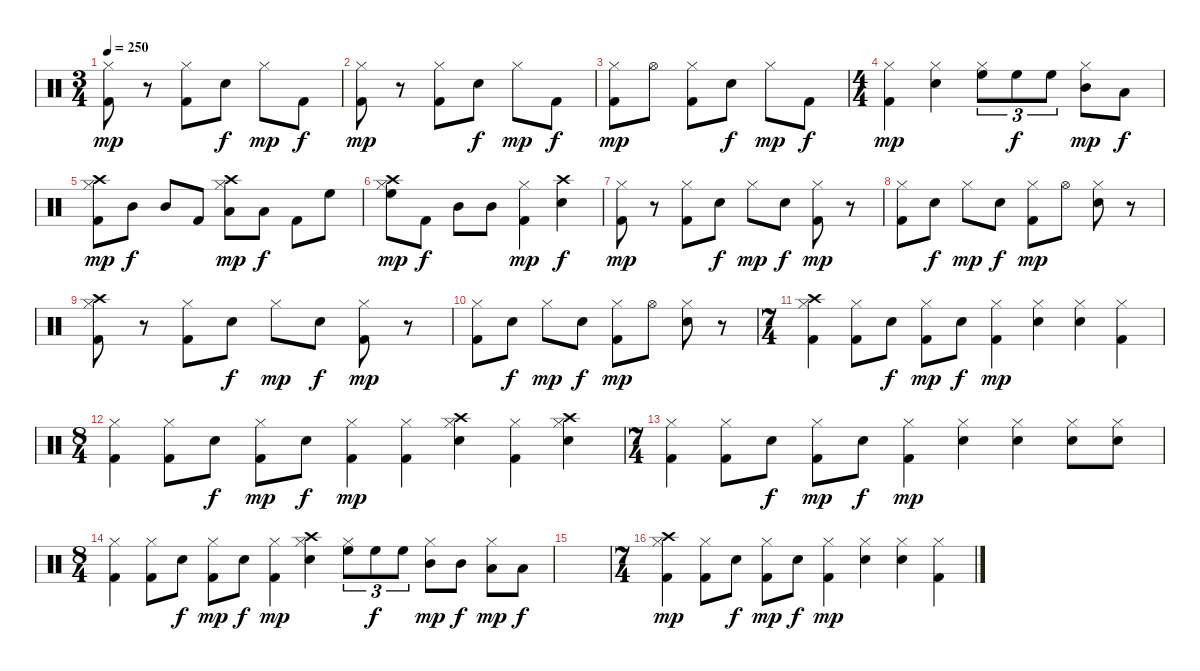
\track "" {instrument percussion}
\staff {score}
\articulation defaults
\ts (3 4)
\tempo 250
\clef neutral
\ks c
("Hi-Hat (closed)" "Kick (hit) 2").8{dy mp} r.8 ("Hi-Hat (closed)" "Kick (hit) 2").8 "Electric Snare (hit)".8{dy f} "Hi-Hat (closed)".8{dy mp} "Kick (hit) 2".8{dy f} |
("Hi-Hat (closed)" "Kick (hit) 2").8{dy mp} r.8 ("Hi-Hat (closed)" "Kick (hit) 2").8 "Electric Snare (hit)".8{dy f} "Hi-Hat (closed)".8{dy mp} "Kick (hit) 2".8{dy f} |
("Hi-Hat (closed)" "Kick (hit) 2").8{dy mp} "Hi-Hat (open)".8 ("Hi-Hat (closed)" "Kick (hit) 2").8 "Electric Snare (hit)".8{dy f} "Hi-Hat (closed)".8{dy mp} "Kick (hit) 2".8{dy f} |
\ts (4 4)
("Hi-Hat (closed)" "Kick (hit) 2").4{dy mp} ("Hi-Hat (closed)" "Electric Snare (hit)").4 ("Hi-Hat (closed)" "High Floor Tom (hit)").8{tu (3 2) balance 16} "High Floor Tom (hit)".8{tu (3 2) dy f} "High Floor Tom (hit)".8{tu (3 2)} ("Hi-Hat (closed)" "Mid Tom (hit)").8{dy mp balance 8} "Low Tom (hit)".8{dy f balance 0} |
("Hi-Hat (closed)" "Kick (hit) 2" "Crash high (hit)").8{dy mp} "Mid Tom (hit)".8{dy f} "Mid Tom (hit)".8 "Kick (hit) 2".8 ("Hi-Hat (closed)" "Low Tom (hit)" "Crash high (hit)").8{dy mp balance 2} "Low Tom (hit)".8{dy f} "Kick (hit) 2".8{balance 8} "High Floor Tom (hit)".8{balance 14} |
("Hi-Hat (closed)" "High Floor Tom (hit)" "Crash high (hit)").8{dy mp} "Kick (hit) 2".8{dy f balance 8} "Mid Tom (hit)".8 "Mid Tom (hit)".8 ("Hi-Hat (closed)" "Kick (hit) 2").4{dy mp} ("Electric Snare (hit)" "Crash high (hit)").4{dy f} |
("Kick (hit) 2" "Hi-Hat (closed)").8{dy mp} r.8 ("Kick (hit) 2" "Hi-Hat (closed)").8 "Electric Snare (hit)".8{dy f} "Hi-Hat (closed)".8{dy mp} "Electric Snare (hit)".8{dy f} ("Kick (hit) 2" "Hi-Hat (closed)").8{dy mp} r.8 |
("Kick (hit) 2" "Hi-Hat (closed)").8 "Electric Snare (hit)".8{dy f} "Hi-Hat (closed)".8{dy mp} "Electric Snare (hit)".8{dy f} ("Kick (hit) 2" "Hi-Hat (closed)").8{dy mp} "Hi-Hat (open)".8 ("Electric Snare (hit)" "Hi-Hat (closed)").8 r.8 |
("Kick (hit) 2" "Hi-Hat (closed)" "Crash high (hit)").8 r.8 ("Kick (hit) 2" "Hi-Hat (closed)").8 "Electric Snare (hit)".8{dy f} "Hi-Hat (closed)".8{dy mp} "Electric Snare (hit)".8{dy f} ("Kick (hit) 2" "Hi-Hat (closed)").8{dy mp} r.8 |
("Kick (hit) 2" "Hi-Hat (closed)").8 "Electric Snare (hit)".8{dy f} "Hi-Hat (closed)".8{dy mp} "Electric Snare (hit)".8{dy f} ("Kick (hit) 2" "Hi-Hat (closed)").8{dy mp} "Hi-Hat (open)".8 ("Electric Snare (hit)" "Hi-Hat (closed)").8 r.8 |
\ts (7 4)
("Kick (hit) 2" "Hi-Hat (closed)" "Crash high (hit)").4 ("Kick (hit) 2" "Hi-Hat (closed)").8 "Electric Snare (hit)".8{dy f} ("Kick (hit) 2" "Hi-Hat (closed)").8{dy mp} "Electric Snare (hit)".8{dy f} ("Kick (hit) 2" "Hi-Hat (closed)").4{dy mp} ("Electric Snare (hit)" "Hi-Hat (closed)").4 ("Electric Snare (hit)" "Hi-Hat (closed)").4 ("Kick (hit) 2" "Hi-Hat (closed)").4 |
\ts (8 4)
("Kick (hit) 2" "Hi-Hat (closed)").4 ("Kick (hit) 2" "Hi-Hat (closed)").8 "Electric Snare (hit)".8{dy f} ("Kick (hit) 2" "Hi-Hat (closed)").8{dy mp} "Electric Snare (hit)".8{dy f} ("Kick (hit) 2" "Hi-Hat (closed)").4{dy mp} ("Kick (hit) 2" "Hi-Hat (closed)").4 ("Electric Snare (hit)" "Hi-Hat (closed)" "Crash high (hit)").4 ("Kick (hit) 2" "Hi-Hat (closed)").4 ("Electric Snare (hit)" "Hi-Hat (closed)" "Crash high (hit)").4 |
\ts (7 4)
("Kick (hit) 2" "Hi-Hat (closed)").4 ("Kick (hit) 2" "Hi-Hat (closed)").8 "Electric Snare (hit)".8{dy f} ("Kick (hit) 2" "Hi-Hat (closed)").8{dy mp} "Electric Snare (hit)".8{dy f} ("Kick (hit) 2" "Hi-Hat (closed)").4{dy mp} ("Electric Snare (hit)" "Hi-Hat (closed)").4 ("Electric Snare (hit)" "Hi-Hat (closed)").4 ("Electric Snare (hit)" "Hi-Hat (closed)").8 ("Electric Snare (hit)" "Hi-Hat (closed)").8 |
\ts (8 4)
("Kick (hit) 2" "Hi-Hat (closed)").4 ("Kick (hit) 2" "Hi-Hat (closed)").8 "Electric Snare (hit)".8{dy f} ("Kick (hit) 2" "Hi-Hat (closed)").8{dy mp} "Electric Snare (hit)".8{dy f} ("Kick (hit) 2" "Hi-Hat (closed)").4{dy mp} ("Electric Snare (hit)" "Hi-Hat (closed)" "Crash high (hit)").4 ("High Floor Tom (hit)" "Hi-Hat (closed)").8{tu (3 2) balance 16} "High Floor Tom (hit)".8{tu (3 2) dy f} "High Floor Tom (hit)".8{tu (3 2)} ("Mid Tom (hit)" "Hi-Hat (closed)").8{dy mp balance 8} "Mid Tom (hit)".8{dy f} ("Low Tom (hit)" "Hi-Hat (closed)").8{dy mp balance 0} "Low Tom (hit)".8{dy f} |
|
\ts (7 4)
("Kick (hit) 2" "Hi-Hat (closed)" "Crash high (hit)").4{dy mp} ("Kick (hit) 2" "Hi-Hat (closed)").8 "Electric Snare (hit)".8{dy f} ("Kick (hit) 2" "Hi-Hat (closed)").8{dy mp} "Electric Snare (hit)".8{dy f} ("Kick (hit) 2" "Hi-Hat (closed)").4{dy mp} ("Electric Snare (hit)" "Hi-Hat (closed)").4 ("Electric Snare (hit)" "Hi-Hat (closed)").4 ("Kick (hit) 2" "Hi-Hat (closed)").4
